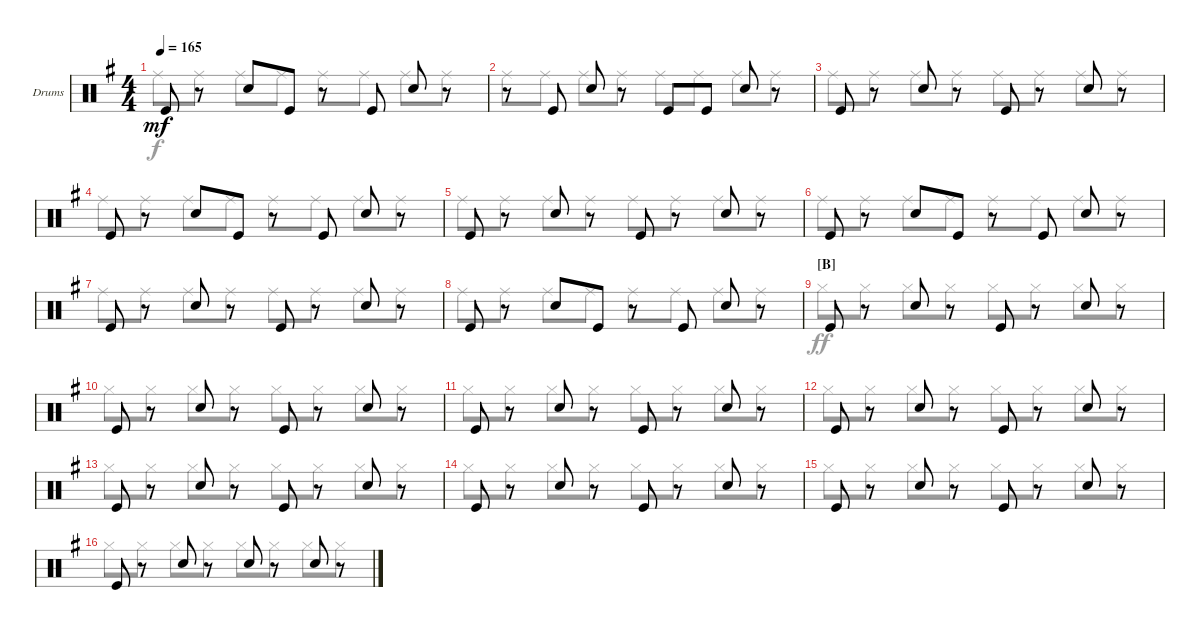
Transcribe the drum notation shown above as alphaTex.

\defaultSystemsLayout 4
\bracketExtendMode groupsimilarinstruments
\firstSystemTrackNameOrientation horizontal
\otherSystemsTrackNameOrientation horizontal
\track ("Fabrizio Moretti" "Drums") {instrument percussion}
\staff {score}
\articulation defaults
\voice
\ts (4 4)
\tempo 165
\clef neutral
\ks g "Kick (hit)".8{dy mf}
r.8 "Snare (hit) 2".8 "Kick (hit)".8 r.8 "Kick (hit)".8 "Snare (hit) 2".8 r.8 |
r.8 "Kick (hit)".8 "Snare (hit) 2".8 r.8 "Kick (hit)".8 "Kick (hit)".8 "Snare (hit) 2".8 r.8 |
"Kick (hit)".8 r.8 "Snare (hit) 2".8 r.8 "Kick (hit)".8 r.8 "Snare (hit) 2".8 r.8 |
"Kick (hit)".8 r.8 "Snare (hit) 2".8 "Kick (hit)".8 r.8 "Kick (hit)".8 "Snare (hit) 2".8 r.8 |
"Kick (hit)".8 r.8 "Snare (hit) 2".8 r.8 "Kick (hit)".8 r.8 "Snare (hit) 2".8 r.8 |
"Kick (hit)".8 r.8 "Snare (hit) 2".8 "Kick (hit)".8 r.8 "Kick (hit)".8 "Snare (hit) 2".8 r.8 |
"Kick (hit)".8 r.8 "Snare (hit) 2".8 r.8 "Kick (hit)".8 r.8 "Snare (hit) 2".8 r.8 |
"Kick (hit)".8 r.8 "Snare (hit) 2".8 "Kick (hit)".8 r.8 "Kick (hit)".8 "Snare (hit) 2".8 r.8 |
\section ("B" "")
"Kick (hit)".8 r.8 "Snare (hit) 2".8 r.8 "Kick (hit)".8 r.8 "Snare (hit) 2".8 r.8 |
"Kick (hit)".8 r.8 "Snare (hit) 2".8 r.8 "Kick (hit)".8 r.8 "Snare (hit) 2".8 r.8 |
"Kick (hit)".8 r.8 "Snare (hit) 2".8 r.8 "Kick (hit)".8 r.8 "Snare (hit) 2".8 r.8 |
"Kick (hit)".8 r.8 "Snare (hit) 2".8 r.8 "Kick (hit)".8 r.8 "Snare (hit) 2".8 r.8 |
"Kick (hit)".8 r.8 "Snare (hit) 2".8 r.8 "Kick (hit)".8 r.8 "Snare (hit) 2".8 r.8 |
"Kick (hit)".8 r.8 "Snare (hit) 2".8 r.8 "Kick (hit)".8 r.8 "Snare (hit) 2".8 r.8 |
"Kick (hit)".8 r.8 "Snare (hit) 2".8 r.8 "Kick (hit)".8 r.8 "Snare (hit) 2".8 r.8 |
"Kick (hit)".8 r.8 "Snare (hit) 2".8 r.8 "Snare (hit) 2".8 r.8 "Snare (hit) 2".8 r.8
\voice
\clef neutral
\ottava regular
\simile none
\ks g "Ride (middle)".8{dy f} "Ride (middle)".8 "Ride (middle)".8 "Ride (middle)".8 "Ride (middle)".8 "Ride (middle)".8 "Ride (middle)".8 "Ride (middle)".8
|
"Ride (middle)".8 "Ride (middle)".8 "Ride (middle)".8 "Ride (middle)".8 "Ride (middle)".8 "Ride (middle)".8 "Ride (middle)".8 "Ride (middle)".8 |
"Ride (middle)".8 "Ride (middle)".8 "Ride (middle)".8 "Ride (middle)".8 "Ride (middle)".8 "Ride (middle)".8 "Ride (middle)".8 "Ride (middle)".8 |
"Ride (middle)".8 "Ride (middle)".8 "Ride (middle)".8 "Ride (middle)".8 "Ride (middle)".8 "Ride (middle)".8 "Ride (middle)".8 "Ride (middle)".8 |
"Ride (middle)".8 "Ride (middle)".8 "Ride (middle)".8 "Ride (middle)".8 "Ride (middle)".8 "Ride (middle)".8 "Ride (middle)".8 "Ride (middle)".8 |
"Ride (middle)".8 "Ride (middle)".8 "Ride (middle)".8 "Ride (middle)".8 "Ride (middle)".8 "Ride (middle)".8 "Ride (middle)".8 "Ride (middle)".8 |
"Ride (middle)".8 "Ride (middle)".8 "Ride (middle)".8 "Ride (middle)".8 "Ride (middle)".8 "Ride (middle)".8 "Ride (middle)".8 "Ride (middle)".8 |
"Ride (middle)".8 "Ride (middle)".8 "Ride (middle)".8 "Ride (middle)".8 "Ride (middle)".8 "Ride (middle)".8 "Ride (middle)".8 "Ride (middle)".8 |
"Hi-Hat (closed)".8{dy ff} "Hi-Hat (closed)".8 "Hi-Hat (closed)".8 "Hi-Hat (closed)".8 "Hi-Hat (closed)".8 "Hi-Hat (closed)".8 "Hi-Hat (closed)".8 "Hi-Hat (closed)".8 |
"Hi-Hat (closed)".8 "Hi-Hat (closed)".8 "Hi-Hat (closed)".8 "Hi-Hat (closed)".8 "Hi-Hat (closed)".8 "Hi-Hat (closed)".8 "Hi-Hat (closed)".8 "Hi-Hat (closed)".8 |
"Hi-Hat (closed)".8 "Hi-Hat (closed)".8 "Hi-Hat (closed)".8 "Hi-Hat (closed)".8 "Hi-Hat (closed)".8 "Hi-Hat (closed)".8 "Hi-Hat (closed)".8 "Hi-Hat (closed)".8 |
"Hi-Hat (closed)".8 "Hi-Hat (closed)".8 "Hi-Hat (closed)".8 "Hi-Hat (closed)".8 "Hi-Hat (closed)".8 "Hi-Hat (closed)".8 "Hi-Hat (closed)".8 "Hi-Hat (closed)".8 |
"Hi-Hat (closed)".8 "Hi-Hat (closed)".8 "Hi-Hat (closed)".8 "Hi-Hat (closed)".8 "Hi-Hat (closed)".8 "Hi-Hat (closed)".8 "Hi-Hat (closed)".8 "Hi-Hat (closed)".8 |
"Hi-Hat (closed)".8 "Hi-Hat (closed)".8 "Hi-Hat (closed)".8 "Hi-Hat (closed)".8 "Hi-Hat (closed)".8 "Hi-Hat (closed)".8 "Hi-Hat (closed)".8 "Hi-Hat (closed)".8 |
"Hi-Hat (closed)".8 "Hi-Hat (closed)".8 "Hi-Hat (closed)".8 "Hi-Hat (closed)".8 "Hi-Hat (closed)".8 "Hi-Hat (closed)".8 "Hi-Hat (closed)".8 "Hi-Hat (closed)".8 |
"Hi-Hat (closed)".8 "Hi-Hat (closed)".8 "Hi-Hat (closed)".8 "Hi-Hat (closed)".8 "Hi-Hat (closed)".8 "Hi-Hat (closed)".8 "Hi-Hat (closed)".8 "Hi-Hat (closed)".8
